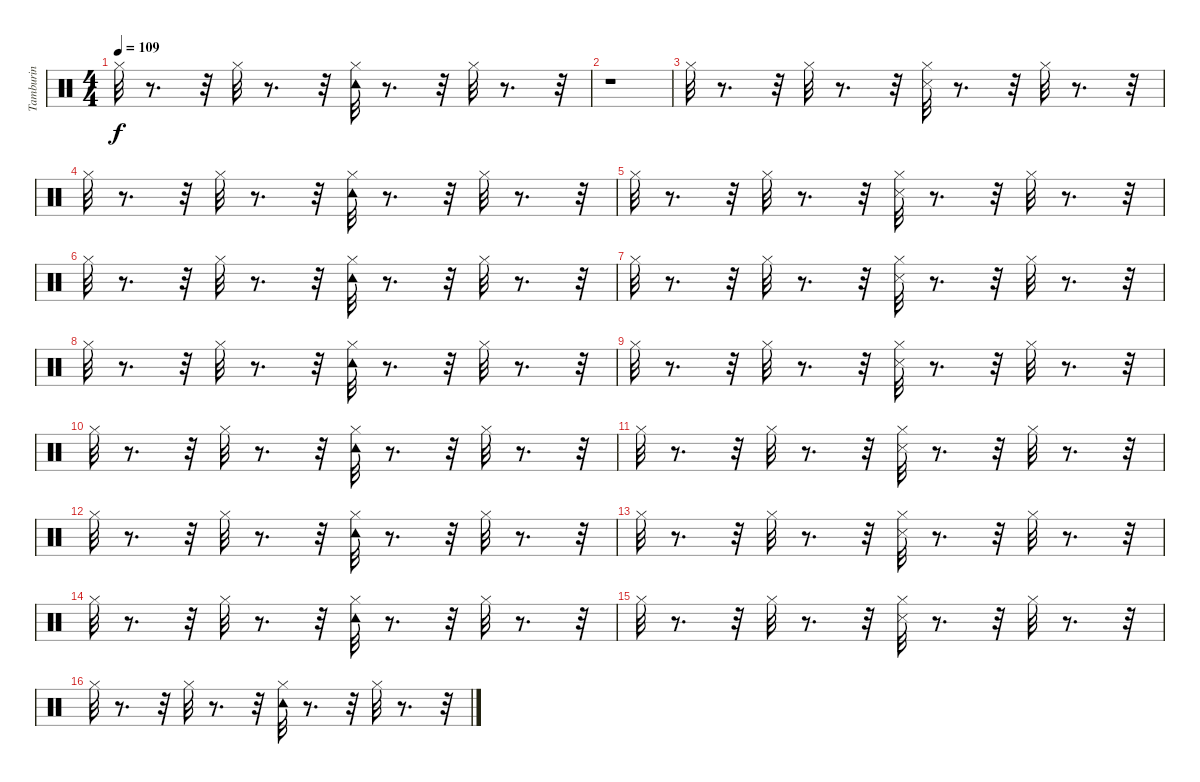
\track ("Tamburin" "Tamburin") {instrument percussion}
\staff {score}
\articulation defaults
\ts (4 4)
\tempo 109
\clef neutral
\ks c "Hi-Hat (closed)".32{dy f}
r.8{d} r.32 "Hi-Hat (closed)".32 r.8{d} r.32 ("Hi-Hat (closed)" "Tambourine (hit)").32 r.8{d} r.32 "Hi-Hat (closed)".32 r.8{d} r.32 |
r.1 |
"Hi-Hat (closed)".32 r.8{d} r.32 "Hi-Hat (closed)".32 r.8{d} r.32 ("Snare (side stick) 3" "Hi-Hat (closed)").32 r.8{d} r.32 "Hi-Hat (closed)".32 r.8{d} r.32 |
"Hi-Hat (closed)".32 r.8{d} r.32 "Hi-Hat (closed)".32 r.8{d} r.32 ("Hi-Hat (closed)" "Tambourine (hit)").32 r.8{d} r.32 "Hi-Hat (closed)".32 r.8{d} r.32 |
"Hi-Hat (closed)".32 r.8{d} r.32 "Hi-Hat (closed)".32 r.8{d} r.32 ("Snare (side stick) 3" "Hi-Hat (closed)").32 r.8{d} r.32 "Hi-Hat (closed)".32 r.8{d} r.32 |
"Hi-Hat (closed)".32 r.8{d} r.32 "Hi-Hat (closed)".32 r.8{d} r.32 ("Hi-Hat (closed)" "Tambourine (hit)").32 r.8{d} r.32 "Hi-Hat (closed)".32 r.8{d} r.32 |
"Hi-Hat (closed)".32 r.8{d} r.32 "Hi-Hat (closed)".32 r.8{d} r.32 ("Snare (side stick) 3" "Hi-Hat (closed)").32 r.8{d} r.32 "Hi-Hat (closed)".32 r.8{d} r.32 |
"Hi-Hat (closed)".32 r.8{d} r.32 "Hi-Hat (closed)".32 r.8{d} r.32 ("Hi-Hat (closed)" "Tambourine (hit)").32 r.8{d} r.32 "Hi-Hat (closed)".32 r.8{d} r.32 |
"Hi-Hat (closed)".32 r.8{d} r.32 "Hi-Hat (closed)".32 r.8{d} r.32 ("Snare (side stick) 3" "Hi-Hat (closed)").32 r.8{d} r.32 "Hi-Hat (closed)".32 r.8{d} r.32 |
"Hi-Hat (closed)".32 r.8{d} r.32 "Hi-Hat (closed)".32 r.8{d} r.32 ("Hi-Hat (closed)" "Tambourine (hit)").32 r.8{d} r.32 "Hi-Hat (closed)".32 r.8{d} r.32 |
"Hi-Hat (closed)".32 r.8{d} r.32 "Hi-Hat (closed)".32 r.8{d} r.32 ("Snare (side stick) 3" "Hi-Hat (closed)").32 r.8{d} r.32 "Hi-Hat (closed)".32 r.8{d} r.32 |
"Hi-Hat (closed)".32 r.8{d} r.32 "Hi-Hat (closed)".32 r.8{d} r.32 ("Hi-Hat (closed)" "Tambourine (hit)").32 r.8{d} r.32 "Hi-Hat (closed)".32 r.8{d} r.32 |
"Hi-Hat (closed)".32 r.8{d} r.32 "Hi-Hat (closed)".32 r.8{d} r.32 ("Snare (side stick) 3" "Hi-Hat (closed)").32 r.8{d} r.32 "Hi-Hat (closed)".32 r.8{d} r.32 |
"Hi-Hat (closed)".32 r.8{d} r.32 "Hi-Hat (closed)".32 r.8{d} r.32 ("Hi-Hat (closed)" "Tambourine (hit)").32 r.8{d} r.32 "Hi-Hat (closed)".32 r.8{d} r.32 |
"Hi-Hat (closed)".32 r.8{d} r.32 "Hi-Hat (closed)".32 r.8{d} r.32 ("Snare (side stick) 3" "Hi-Hat (closed)").32 r.8{d} r.32 "Hi-Hat (closed)".32 r.8{d} r.32 |
"Hi-Hat (closed)".32 r.8{d} r.32 "Hi-Hat (closed)".32 r.8{d} r.32 ("Hi-Hat (closed)" "Tambourine (hit)").32 r.8{d} r.32 "Hi-Hat (closed)".32 r.8{d} r.32
